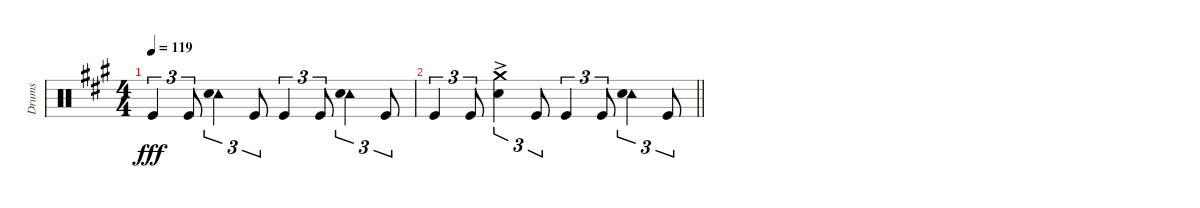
\track ("Drums" "Drums") {instrument percussion}
\staff {score}
\articulation defaults
\ts (4 4)
\tempo 119
\clef neutral
\ks a "Kick (hit)".4{tu (3 2) dy fff} "Kick (hit)".8{tu (3 2)}
("Tambourine (hit)" "Snare (hit) 2").4{tu (3 2)} "Kick (hit)".8{tu (3 2)} "Kick (hit)".4{tu (3 2)} "Kick (hit)".8{tu (3 2)} ("Tambourine (hit)" "Snare (hit) 2").4{tu (3 2)} "Kick (hit)".8{tu (3 2)} |
\barLineRight lightlight "Kick (hit)".4{tu (3 2)} "Kick (hit)".8{tu (3 2)}
("Crash medium (hit)"{ac} "Snare (hit) 2").4{tu (3 2)} "Kick (hit)".8{tu (3 2)} "Kick (hit)".4{tu (3 2)} "Kick (hit)".8{tu (3 2)} ("Tambourine (hit)" "Snare (hit) 2").4{tu (3 2)} "Kick (hit)".8{tu (3 2)}
